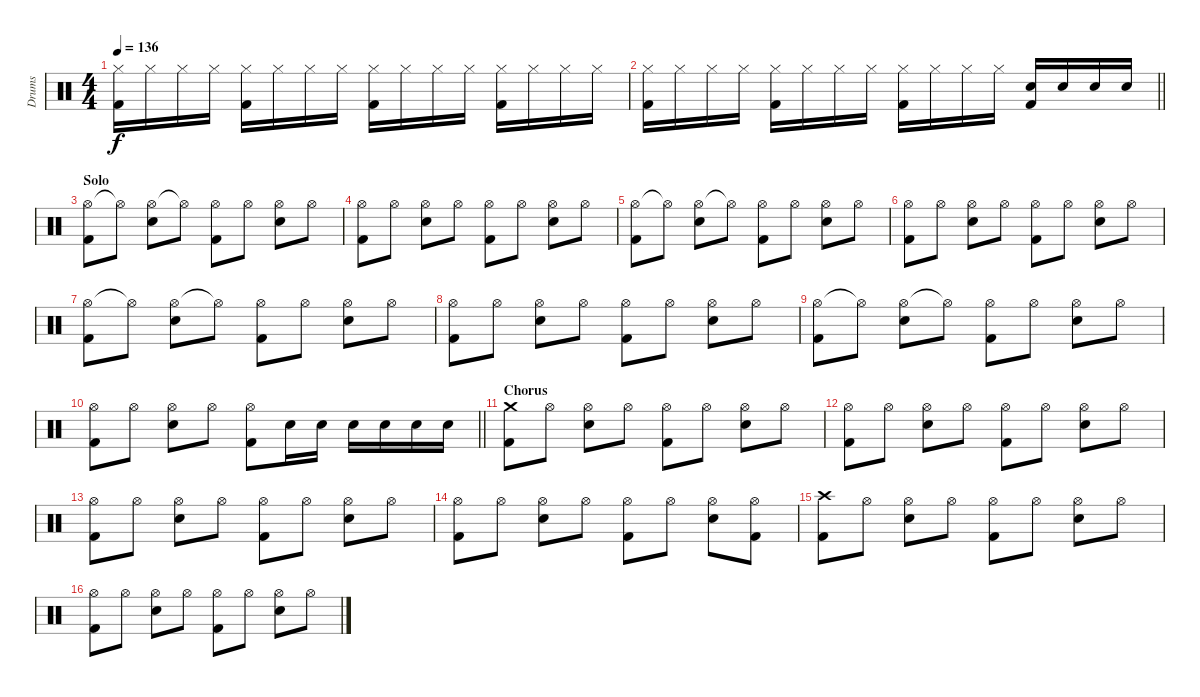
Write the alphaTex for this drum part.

\track ("Drums" "Drums") {instrument percussion}
\staff {score}
\articulation defaults
\ts (4 4)
\tempo 136
\clef neutral
\ks c
("Hi-Hat (closed)" "Kick (hit) 2").16{dy f} "Hi-Hat (closed)".16 "Hi-Hat (closed)".16 "Hi-Hat (closed)".16 ("Hi-Hat (closed)" "Kick (hit) 2").16 "Hi-Hat (closed)".16 "Hi-Hat (closed)".16 "Hi-Hat (closed)".16 ("Hi-Hat (closed)" "Kick (hit) 2").16 "Hi-Hat (closed)".16 "Hi-Hat (closed)".16 "Hi-Hat (closed)".16 ("Hi-Hat (closed)" "Kick (hit) 2").16 "Hi-Hat (closed)".16 "Hi-Hat (closed)".16 "Hi-Hat (closed)".16 |
\barLineRight lightlight
("Hi-Hat (closed)" "Kick (hit) 2").16 "Hi-Hat (closed)".16 "Hi-Hat (closed)".16 "Hi-Hat (closed)".16 ("Hi-Hat (closed)" "Kick (hit) 2").16 "Hi-Hat (closed)".16 "Hi-Hat (closed)".16 "Hi-Hat (closed)".16 ("Hi-Hat (closed)" "Kick (hit) 2").16 "Hi-Hat (closed)".16 "Hi-Hat (closed)".16 "Hi-Hat (closed)".16 ("Electric Snare (hit)" "Kick (hit) 2").16 "Electric Snare (hit)".16 "Electric Snare (hit)".16 "Electric Snare (hit)".16 |
\section ("" "Solo")
("Hi-Hat (open)" "Kick (hit) 2").8 "Hi-Hat (open)"{t}.8 ("Hi-Hat (open)" "Electric Snare (hit)").8 "Hi-Hat (open)"{t}.8 ("Hi-Hat (open)" "Kick (hit) 2").8 "Hi-Hat (open)".8 ("Hi-Hat (open)" "Electric Snare (hit)").8 "Hi-Hat (open)".8 |
("Hi-Hat (open)" "Kick (hit) 2").8 "Hi-Hat (open)".8 ("Hi-Hat (open)" "Electric Snare (hit)").8 "Hi-Hat (open)".8 ("Hi-Hat (open)" "Kick (hit) 2").8 "Hi-Hat (open)".8 ("Hi-Hat (open)" "Electric Snare (hit)").8 "Hi-Hat (open)".8 |
("Hi-Hat (open)" "Kick (hit) 2").8 "Hi-Hat (open)"{t}.8 ("Hi-Hat (open)" "Electric Snare (hit)").8 "Hi-Hat (open)"{t}.8 ("Hi-Hat (open)" "Kick (hit) 2").8 "Hi-Hat (open)".8 ("Hi-Hat (open)" "Electric Snare (hit)").8 "Hi-Hat (open)".8 |
("Hi-Hat (open)" "Kick (hit) 2").8 "Hi-Hat (open)".8 ("Hi-Hat (open)" "Electric Snare (hit)").8 "Hi-Hat (open)".8 ("Hi-Hat (open)" "Kick (hit) 2").8 "Hi-Hat (open)".8 ("Hi-Hat (open)" "Electric Snare (hit)").8 "Hi-Hat (open)".8 |
("Hi-Hat (open)" "Kick (hit) 2").8 "Hi-Hat (open)"{t}.8 ("Hi-Hat (open)" "Electric Snare (hit)").8 "Hi-Hat (open)"{t}.8 ("Hi-Hat (open)" "Kick (hit) 2").8 "Hi-Hat (open)".8 ("Hi-Hat (open)" "Electric Snare (hit)").8 "Hi-Hat (open)".8 |
("Hi-Hat (open)" "Kick (hit) 2").8 "Hi-Hat (open)".8 ("Hi-Hat (open)" "Electric Snare (hit)").8 "Hi-Hat (open)".8 ("Hi-Hat (open)" "Kick (hit) 2").8 "Hi-Hat (open)".8 ("Hi-Hat (open)" "Electric Snare (hit)").8 "Hi-Hat (open)".8 |
("Hi-Hat (open)" "Kick (hit) 2").8 "Hi-Hat (open)"{t}.8 ("Hi-Hat (open)" "Electric Snare (hit)").8 "Hi-Hat (open)"{t}.8 ("Hi-Hat (open)" "Kick (hit) 2").8 "Hi-Hat (open)".8 ("Hi-Hat (open)" "Electric Snare (hit)").8 "Hi-Hat (open)".8 |
\barLineRight lightlight
("Hi-Hat (open)" "Kick (hit) 2").8 "Hi-Hat (open)".8 ("Hi-Hat (open)" "Electric Snare (hit)").8 "Hi-Hat (open)".8 ("Hi-Hat (open)" "Kick (hit) 2").8 "Electric Snare (hit)".16 "Electric Snare (hit)".16 "Electric Snare (hit)".16 "Electric Snare (hit)".16 "Electric Snare (hit)".16 "Electric Snare (hit)".16 |
\section ("" "Chorus")
("Crash medium (hit)" "Kick (hit) 2").8 "Hi-Hat (open)".8 ("Hi-Hat (open)" "Electric Snare (hit)").8 "Hi-Hat (open)".8 ("Hi-Hat (open)" "Kick (hit) 2").8 "Hi-Hat (open)".8 ("Hi-Hat (open)" "Electric Snare (hit)").8 "Hi-Hat (open)".8 |
("Hi-Hat (open)" "Kick (hit) 2").8 "Hi-Hat (open)".8 ("Hi-Hat (open)" "Electric Snare (hit)").8 "Hi-Hat (open)".8 ("Hi-Hat (open)" "Kick (hit) 2").8 "Hi-Hat (open)".8 ("Hi-Hat (open)" "Electric Snare (hit)").8 "Hi-Hat (open)".8 |
("Hi-Hat (open)" "Kick (hit) 2").8 "Hi-Hat (open)".8 ("Hi-Hat (open)" "Electric Snare (hit)").8 "Hi-Hat (open)".8 ("Hi-Hat (open)" "Kick (hit) 2").8 "Hi-Hat (open)".8 ("Hi-Hat (open)" "Electric Snare (hit)").8 "Hi-Hat (open)".8 |
("Hi-Hat (open)" "Kick (hit) 2").8 "Hi-Hat (open)".8 ("Hi-Hat (open)" "Electric Snare (hit)").8 "Hi-Hat (open)".8 ("Hi-Hat (open)" "Kick (hit) 2").8 "Hi-Hat (open)".8 ("Hi-Hat (open)" "Electric Snare (hit)").8 ("Hi-Hat (open)" "Kick (hit) 2").8 |
("Crash high (hit)" "Kick (hit) 2").8 "Hi-Hat (open)".8 ("Hi-Hat (open)" "Electric Snare (hit)").8 "Hi-Hat (open)".8 ("Hi-Hat (open)" "Kick (hit) 2").8 "Hi-Hat (open)".8 ("Hi-Hat (open)" "Electric Snare (hit)").8 "Hi-Hat (open)".8 |
("Hi-Hat (open)" "Kick (hit) 2").8 "Hi-Hat (open)".8 ("Hi-Hat (open)" "Electric Snare (hit)").8 "Hi-Hat (open)".8 ("Hi-Hat (open)" "Kick (hit) 2").8 "Hi-Hat (open)".8 ("Hi-Hat (open)" "Electric Snare (hit)").8 "Hi-Hat (open)".8
